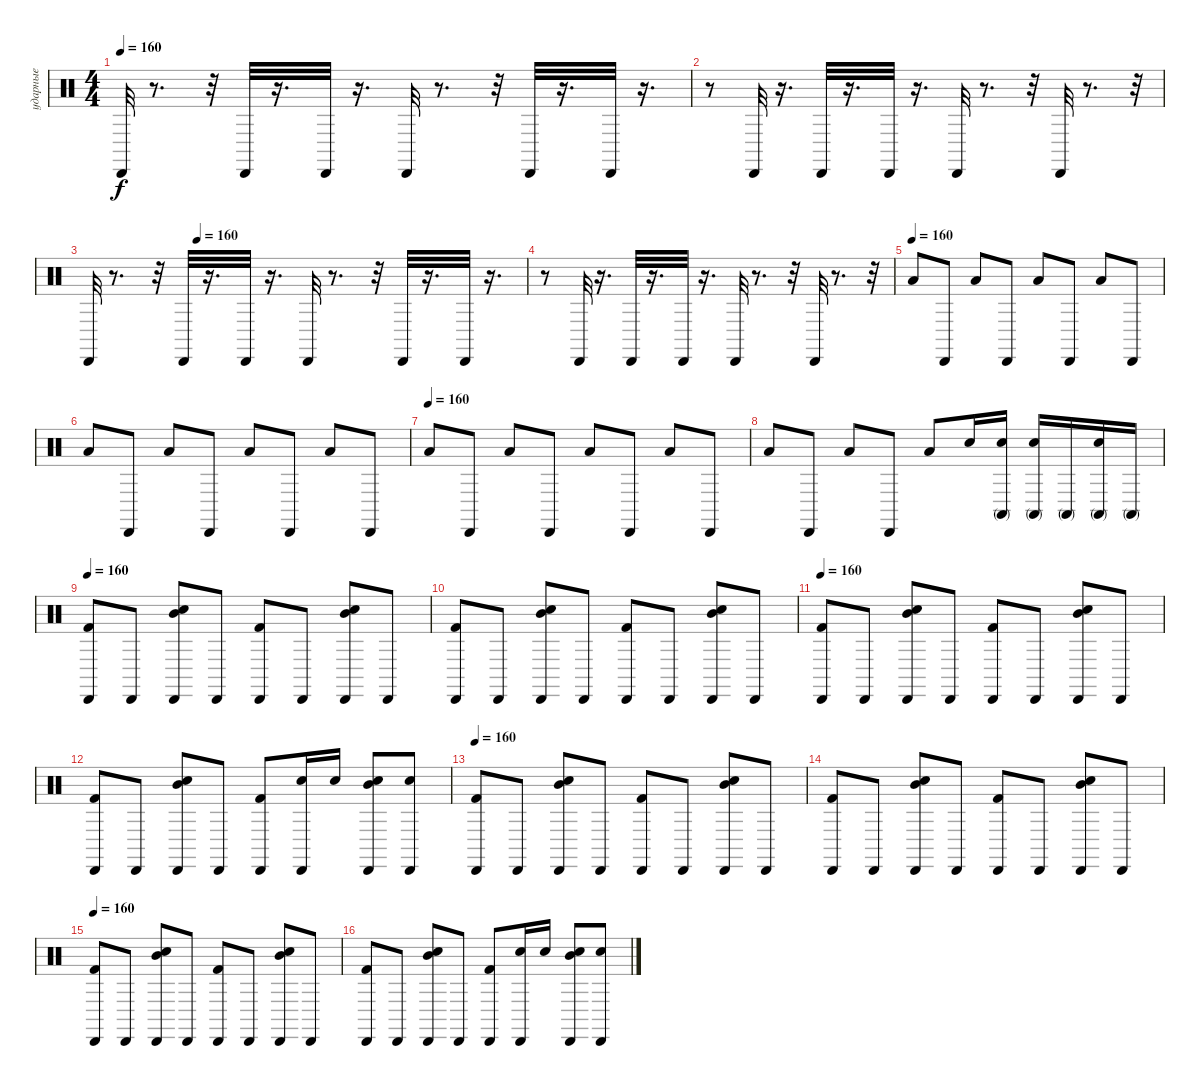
\track ("ударные" "ударные") {instrument percussion}
\staff {score}
\articulation defaults
\ts (4 4)
\tempo 160
\clef neutral
\ks c "Cabasa (hit)".32{dy f}
r.8{d} r.32 "Cabasa (hit)".32 r.16{d} "Cabasa (hit)".32 r.16{d} "Cabasa (hit)".32 r.8{d} r.32 "Cabasa (hit)".32 r.16{d} "Cabasa (hit)".32 r.16{d} |
r.8 "Cabasa (hit)".32 r.16{d} "Cabasa (hit)".32 r.16{d} "Cabasa (hit)".32 r.16{d} "Cabasa (hit)".32 r.8{d} r.32 "Cabasa (hit)".32 r.8{d} r.32 |
\tempo (160 0.25)
"Cabasa (hit)".32 r.8{d} r.32 "Cabasa (hit)".32 r.16{d} "Cabasa (hit)".32 r.16{d} "Cabasa (hit)".32 r.8{d} r.32 "Cabasa (hit)".32 r.16{d} "Cabasa (hit)".32 r.16{d} |
r.8 "Cabasa (hit)".32 r.16{d} "Cabasa (hit)".32 r.16{d} "Cabasa (hit)".32 r.16{d} "Cabasa (hit)".32 r.8{d} r.32 "Cabasa (hit)".32 r.8{d} r.32 |
\tempo (160)
"Low Floor Tom (hit)".8 "Cabasa (hit)".8 "Low Floor Tom (hit)".8 "Cabasa (hit)".8 "Low Floor Tom (hit)".8 "Cabasa (hit)".8 "Low Floor Tom (hit)".8 "Cabasa (hit)".8 |
"Low Floor Tom (hit)".8 "Cabasa (hit)".8 "Low Floor Tom (hit)".8 "Cabasa (hit)".8 "Low Floor Tom (hit)".8 "Cabasa (hit)".8 "Low Floor Tom (hit)".8 "Cabasa (hit)".8 |
\tempo (160)
"Low Floor Tom (hit)".8 "Cabasa (hit)".8 "Low Floor Tom (hit)".8 "Cabasa (hit)".8 "Low Floor Tom (hit)".8 "Cabasa (hit)".8 "Low Floor Tom (hit)".8 "Cabasa (hit)".8 |
"Low Floor Tom (hit)".8 "Cabasa (hit)".8 "Low Floor Tom (hit)".8 "Cabasa (hit)".8 "Low Floor Tom (hit)".8 "Electric Snare (hit)".16 ("Electric Snare (hit)" "Conga high (mute)").16 ("Electric Snare (hit)" "Conga high (mute)").16 "Conga high (mute)".16 ("Electric Snare (hit)" "Conga high (mute)").16 "Conga high (mute)".16 |
\tempo 160
("Kick (hit) 2" "Cabasa (hit)").8 "Cabasa (hit)".8 ("Electric Snare (hit)" "Mid Tom (hit)" "Cabasa (hit)").8 "Cabasa (hit)".8 ("Cabasa (hit)" "Kick (hit) 2").8 "Cabasa (hit)".8 ("Cabasa (hit)" "Electric Snare (hit)" "Mid Tom (hit)").8 "Cabasa (hit)".8 |
("Cabasa (hit)" "Kick (hit) 2").8 "Cabasa (hit)".8 ("Electric Snare (hit)" "Cabasa (hit)" "Mid Tom (hit)").8 "Cabasa (hit)".8 ("Cabasa (hit)" "Kick (hit) 2").8 "Cabasa (hit)".8 ("Mid Tom (hit)" "Electric Snare (hit)" "Cabasa (hit)").8 "Cabasa (hit)".8 |
\tempo 160
("Kick (hit) 2" "Cabasa (hit)").8 "Cabasa (hit)".8 ("Electric Snare (hit)" "Mid Tom (hit)" "Cabasa (hit)").8 "Cabasa (hit)".8 ("Cabasa (hit)" "Kick (hit) 2").8 "Cabasa (hit)".8 ("Cabasa (hit)" "Electric Snare (hit)" "Mid Tom (hit)").8 "Cabasa (hit)".8 |
("Cabasa (hit)" "Kick (hit) 2").8 "Cabasa (hit)".8 ("Electric Snare (hit)" "Cabasa (hit)" "Mid Tom (hit)").8 "Cabasa (hit)".8 ("Cabasa (hit)" "Kick (hit) 2").8 ("Electric Snare (hit)" "Cabasa (hit)").16 "Electric Snare (hit)".16 ("Electric Snare (hit)" "Mid Tom (hit)" "Cabasa (hit)").8 ("Electric Snare (hit)" "Cabasa (hit)").8 |
\tempo 160
("Kick (hit) 2" "Cabasa (hit)").8 "Cabasa (hit)".8 ("Electric Snare (hit)" "Mid Tom (hit)" "Cabasa (hit)").8 "Cabasa (hit)".8 ("Cabasa (hit)" "Kick (hit) 2").8 "Cabasa (hit)".8 ("Cabasa (hit)" "Electric Snare (hit)" "Mid Tom (hit)").8 "Cabasa (hit)".8 |
("Cabasa (hit)" "Kick (hit) 2").8 "Cabasa (hit)".8 ("Electric Snare (hit)" "Cabasa (hit)" "Mid Tom (hit)").8 "Cabasa (hit)".8 ("Cabasa (hit)" "Kick (hit) 2").8 "Cabasa (hit)".8 ("Mid Tom (hit)" "Electric Snare (hit)" "Cabasa (hit)").8 "Cabasa (hit)".8 |
\tempo 160
("Kick (hit) 2" "Cabasa (hit)").8 "Cabasa (hit)".8 ("Electric Snare (hit)" "Mid Tom (hit)" "Cabasa (hit)").8 "Cabasa (hit)".8 ("Cabasa (hit)" "Kick (hit) 2").8 "Cabasa (hit)".8 ("Cabasa (hit)" "Electric Snare (hit)" "Mid Tom (hit)").8 "Cabasa (hit)".8 |
("Cabasa (hit)" "Kick (hit) 2").8 "Cabasa (hit)".8 ("Electric Snare (hit)" "Cabasa (hit)" "Mid Tom (hit)").8 "Cabasa (hit)".8 ("Cabasa (hit)" "Kick (hit) 2").8 ("Electric Snare (hit)" "Cabasa (hit)").16 "Electric Snare (hit)".16 ("Electric Snare (hit)" "Mid Tom (hit)" "Cabasa (hit)").8 ("Electric Snare (hit)" "Cabasa (hit)").8
